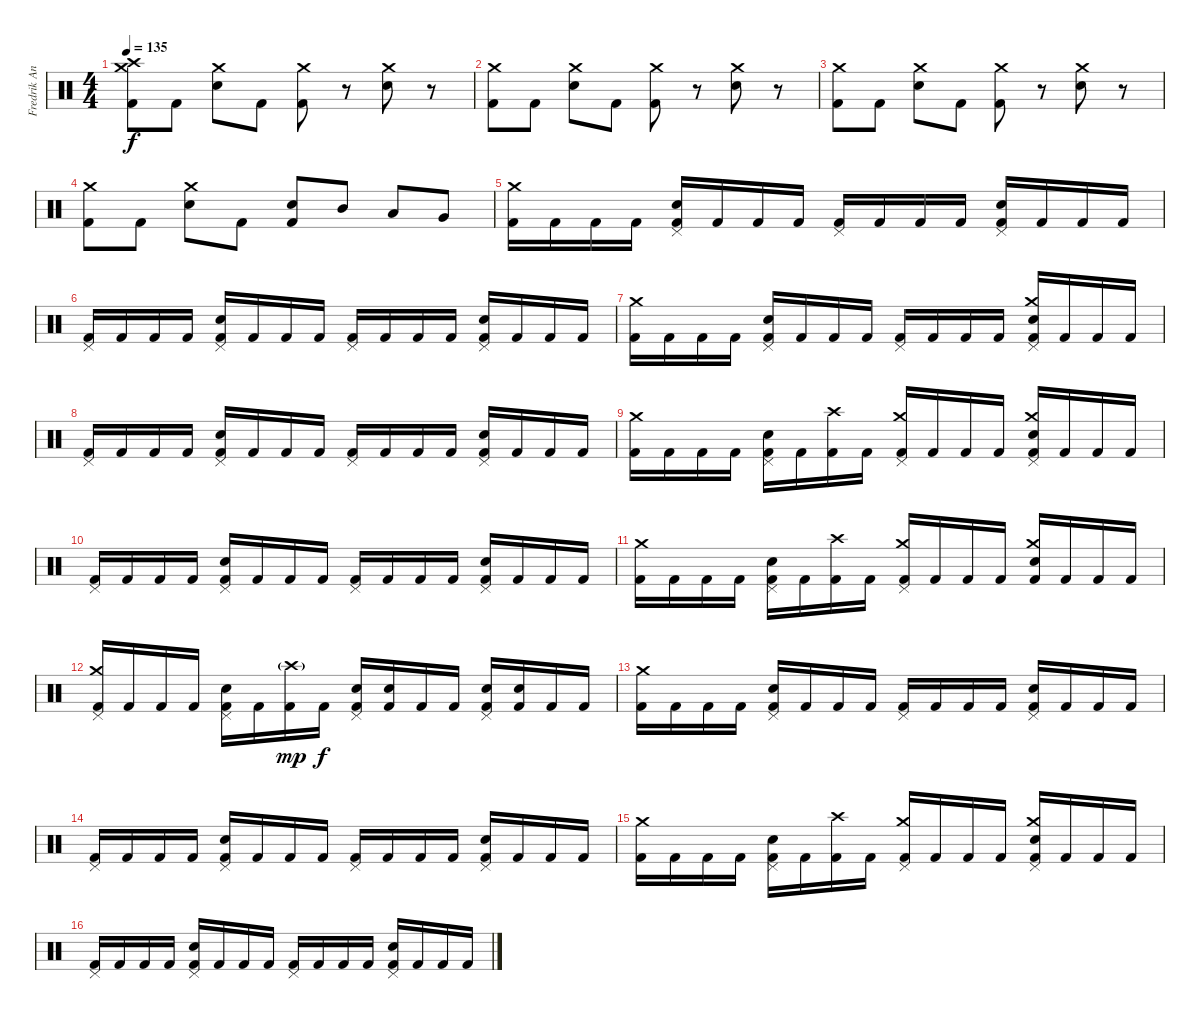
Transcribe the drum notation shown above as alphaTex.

\track ("Fredrik Andersson" "Fredrik An") {instrument percussion}
\staff {score}
\articulation defaults
\ts (4 4)
\tempo 135
\clef neutral
\ks c
("Kick (hit) 2" "Crash medium (hit)" "Crash high (hit)").8{dy f} "Kick (hit) 2".8 ("Snare (hit) 2" "Crash medium (hit)").8 "Kick (hit) 2".8 ("Kick (hit) 2" "Crash medium (hit)").8 r.8 ("Snare (hit) 2" "Crash medium (hit)").8 r.8 |
("Kick (hit) 2" "Crash medium (hit)").8 "Kick (hit) 2".8 ("Snare (hit) 2" "Crash medium (hit)").8 "Kick (hit) 2".8 ("Kick (hit) 2" "Crash medium (hit)").8 r.8 ("Snare (hit) 2" "Crash medium (hit)").8 r.8 |
("Kick (hit) 2" "Crash medium (hit)").8 "Kick (hit) 2".8 ("Snare (hit) 2" "Crash medium (hit)").8 "Kick (hit) 2".8 ("Kick (hit) 2" "Crash medium (hit)").8 r.8 ("Snare (hit) 2" "Crash medium (hit)").8 r.8 |
("Kick (hit) 2" "Crash medium (hit)").8 "Kick (hit) 2".8 ("Snare (hit) 2" "Crash medium (hit)").8 "Kick (hit) 2".8 ("Kick (hit) 2" "Snare (hit) 2").8 "Mid Tom (hit)".8 "Low Tom (hit)".8 "Very Low Tom (hit)".8 |
("Kick (hit) 2" "Crash medium (hit)").16 "Kick (hit) 2".16 "Kick (hit) 2".16 "Kick (hit) 2".16 ("Kick (hit) 2" "Snare (hit) 2" "Pedal Hi-Hat (hit)").16 "Kick (hit) 2".16 "Kick (hit) 2".16 "Kick (hit) 2".16 ("Kick (hit) 2" "Pedal Hi-Hat (hit)").16 "Kick (hit) 2".16 "Kick (hit) 2".16 "Kick (hit) 2".16 ("Kick (hit) 2" "Snare (hit) 2" "Pedal Hi-Hat (hit)").16 "Kick (hit) 2".16 "Kick (hit) 2".16 "Kick (hit) 2".16 |
("Kick (hit) 2" "Pedal Hi-Hat (hit)").16 "Kick (hit) 2".16 "Kick (hit) 2".16 "Kick (hit) 2".16 ("Kick (hit) 2" "Snare (hit) 2" "Pedal Hi-Hat (hit)").16 "Kick (hit) 2".16 "Kick (hit) 2".16 "Kick (hit) 2".16 ("Kick (hit) 2" "Pedal Hi-Hat (hit)").16 "Kick (hit) 2".16 "Kick (hit) 2".16 "Kick (hit) 2".16 ("Kick (hit) 2" "Snare (hit) 2" "Pedal Hi-Hat (hit)").16 "Kick (hit) 2".16 "Kick (hit) 2".16 "Kick (hit) 2".16 |
("Kick (hit) 2" "Crash medium (hit)").16 "Kick (hit) 2".16 "Kick (hit) 2".16 "Kick (hit) 2".16 ("Kick (hit) 2" "Snare (hit) 2" "Pedal Hi-Hat (hit)").16 "Kick (hit) 2".16 "Kick (hit) 2".16 "Kick (hit) 2".16 ("Kick (hit) 2" "Pedal Hi-Hat (hit)").16 "Kick (hit) 2".16 "Kick (hit) 2".16 "Kick (hit) 2".16 ("Kick (hit) 2" "Snare (hit) 2" "Pedal Hi-Hat (hit)" "Crash medium (hit)").16 "Kick (hit) 2".16 "Kick (hit) 2".16 "Kick (hit) 2".16 |
("Kick (hit) 2" "Pedal Hi-Hat (hit)").16 "Kick (hit) 2".16 "Kick (hit) 2".16 "Kick (hit) 2".16 ("Kick (hit) 2" "Snare (hit) 2" "Pedal Hi-Hat (hit)").16 "Kick (hit) 2".16 "Kick (hit) 2".16 "Kick (hit) 2".16 ("Kick (hit) 2" "Pedal Hi-Hat (hit)").16 "Kick (hit) 2".16 "Kick (hit) 2".16 "Kick (hit) 2".16 ("Kick (hit) 2" "Snare (hit) 2" "Pedal Hi-Hat (hit)").16 "Kick (hit) 2".16 "Kick (hit) 2".16 "Kick (hit) 2".16 |
("Kick (hit) 2" "Crash medium (hit)").16 "Kick (hit) 2".16 "Kick (hit) 2".16 "Kick (hit) 2".16 ("Kick (hit) 2" "Snare (hit) 2" "Pedal Hi-Hat (hit)").16 "Kick (hit) 2".16 ("Kick (hit) 2" "Crash high (hit)").16 "Kick (hit) 2".16 ("Kick (hit) 2" "Pedal Hi-Hat (hit)" "Crash medium (hit)").16 "Kick (hit) 2".16 "Kick (hit) 2".16 "Kick (hit) 2".16 ("Kick (hit) 2" "Snare (hit) 2" "Pedal Hi-Hat (hit)" "Crash medium (hit)").16 "Kick (hit) 2".16 "Kick (hit) 2".16 "Kick (hit) 2".16 |
("Kick (hit) 2" "Pedal Hi-Hat (hit)").16 "Kick (hit) 2".16 "Kick (hit) 2".16 "Kick (hit) 2".16 ("Kick (hit) 2" "Snare (hit) 2" "Pedal Hi-Hat (hit)").16 "Kick (hit) 2".16 "Kick (hit) 2".16 "Kick (hit) 2".16 ("Kick (hit) 2" "Pedal Hi-Hat (hit)").16 "Kick (hit) 2".16 "Kick (hit) 2".16 "Kick (hit) 2".16 ("Kick (hit) 2" "Snare (hit) 2" "Pedal Hi-Hat (hit)").16 "Kick (hit) 2".16 "Kick (hit) 2".16 "Kick (hit) 2".16 |
("Kick (hit) 2" "Crash medium (hit)").16 "Kick (hit) 2".16 "Kick (hit) 2".16 "Kick (hit) 2".16 ("Kick (hit) 2" "Snare (hit) 2" "Pedal Hi-Hat (hit)").16 "Kick (hit) 2".16 ("Kick (hit) 2" "Crash high (hit)").16 "Kick (hit) 2".16 ("Kick (hit) 2" "Pedal Hi-Hat (hit)" "Crash medium (hit)").16 "Kick (hit) 2".16 "Kick (hit) 2".16 "Kick (hit) 2".16 ("Kick (hit) 2" "Snare (hit) 2" "Crash medium (hit)").16 "Kick (hit) 2".16 "Kick (hit) 2".16 "Kick (hit) 2".16 |
("Kick (hit) 2" "Pedal Hi-Hat (hit)" "Crash medium (hit)").16 "Kick (hit) 2".16 "Kick (hit) 2".16 "Kick (hit) 2".16 ("Kick (hit) 2" "Snare (hit) 2" "Pedal Hi-Hat (hit)").16 "Kick (hit) 2".16 ("Kick (hit) 2" "Crash high (hit)"{g}).16{dy mp} "Kick (hit) 2".16{dy f} ("Kick (hit) 2" "Snare (hit) 2" "Pedal Hi-Hat (hit)").16 ("Kick (hit) 2" "Snare (hit) 2").16 "Kick (hit) 2".16 "Kick (hit) 2".16 ("Kick (hit) 2" "Snare (hit) 2" "Pedal Hi-Hat (hit)").16 ("Kick (hit) 2" "Snare (hit) 2").16 "Kick (hit) 2".16 "Kick (hit) 2".16 |
("Kick (hit) 2" "Crash medium (hit)").16 "Kick (hit) 2".16 "Kick (hit) 2".16 "Kick (hit) 2".16 ("Kick (hit) 2" "Snare (hit) 2" "Pedal Hi-Hat (hit)").16 "Kick (hit) 2".16 "Kick (hit) 2".16 "Kick (hit) 2".16 ("Kick (hit) 2" "Pedal Hi-Hat (hit)").16 "Kick (hit) 2".16 "Kick (hit) 2".16 "Kick (hit) 2".16 ("Kick (hit) 2" "Snare (hit) 2" "Pedal Hi-Hat (hit)").16 "Kick (hit) 2".16 "Kick (hit) 2".16 "Kick (hit) 2".16 |
("Kick (hit) 2" "Pedal Hi-Hat (hit)").16 "Kick (hit) 2".16 "Kick (hit) 2".16 "Kick (hit) 2".16 ("Kick (hit) 2" "Snare (hit) 2" "Pedal Hi-Hat (hit)").16 "Kick (hit) 2".16 "Kick (hit) 2".16 "Kick (hit) 2".16 ("Kick (hit) 2" "Pedal Hi-Hat (hit)").16 "Kick (hit) 2".16 "Kick (hit) 2".16 "Kick (hit) 2".16 ("Kick (hit) 2" "Snare (hit) 2" "Pedal Hi-Hat (hit)").16 "Kick (hit) 2".16 "Kick (hit) 2".16 "Kick (hit) 2".16 |
("Kick (hit) 2" "Crash medium (hit)").16 "Kick (hit) 2".16 "Kick (hit) 2".16 "Kick (hit) 2".16 ("Kick (hit) 2" "Snare (hit) 2" "Pedal Hi-Hat (hit)").16 "Kick (hit) 2".16 ("Kick (hit) 2" "Crash high (hit)").16 "Kick (hit) 2".16 ("Kick (hit) 2" "Pedal Hi-Hat (hit)" "Crash medium (hit)").16 "Kick (hit) 2".16 "Kick (hit) 2".16 "Kick (hit) 2".16 ("Kick (hit) 2" "Snare (hit) 2" "Pedal Hi-Hat (hit)" "Crash medium (hit)").16 "Kick (hit) 2".16 "Kick (hit) 2".16 "Kick (hit) 2".16 |
("Kick (hit) 2" "Pedal Hi-Hat (hit)").16 "Kick (hit) 2".16 "Kick (hit) 2".16 "Kick (hit) 2".16 ("Kick (hit) 2" "Snare (hit) 2" "Pedal Hi-Hat (hit)").16 "Kick (hit) 2".16 "Kick (hit) 2".16 "Kick (hit) 2".16 ("Kick (hit) 2" "Pedal Hi-Hat (hit)").16 "Kick (hit) 2".16 "Kick (hit) 2".16 "Kick (hit) 2".16 ("Kick (hit) 2" "Snare (hit) 2" "Pedal Hi-Hat (hit)").16 "Kick (hit) 2".16 "Kick (hit) 2".16 "Kick (hit) 2".16
